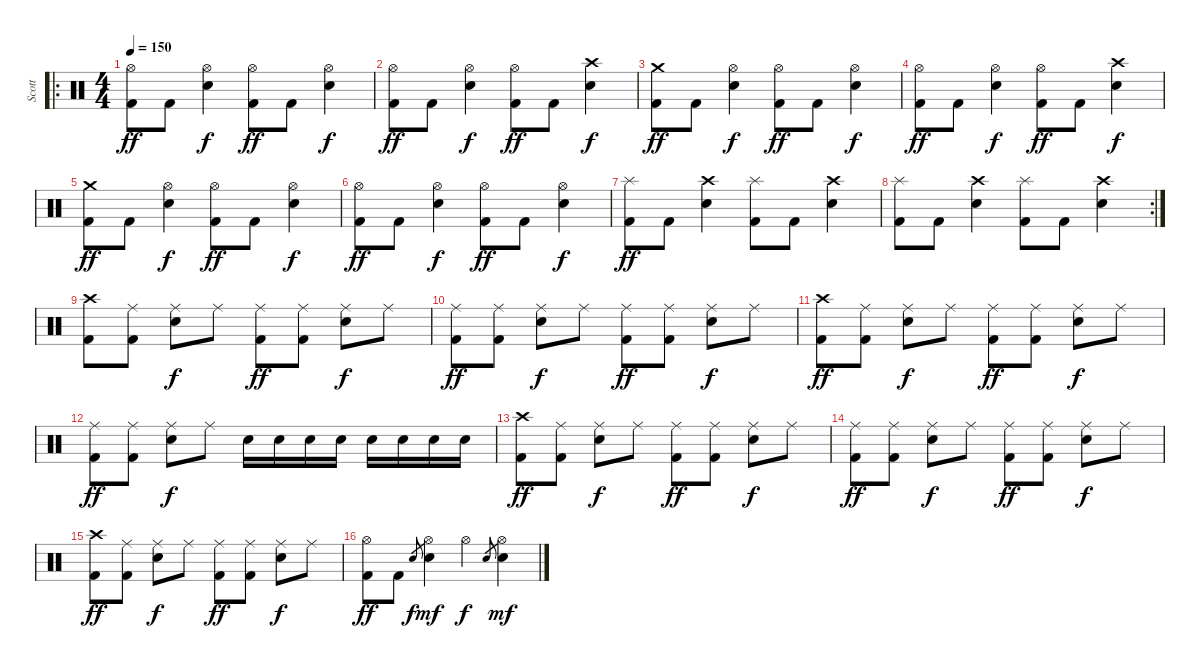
\track ("Scott" "Scott") {solo instrument percussion}
\staff {score}
\articulation defaults
\ro
\ts (4 4)
\tempo 150
\clef neutral
\ks c
("Hi-Hat (open)" "Kick (hit) 2").8{dy ff} "Kick (hit) 2".8 ("Hi-Hat (open)" "Electric Snare (hit)").4{dy f} ("Hi-Hat (open)" "Kick (hit) 2").8{dy ff} "Kick (hit) 2".8 ("Hi-Hat (open)" "Electric Snare (hit)").4{dy f} |
("Hi-Hat (open)" "Kick (hit) 2").8{dy ff} "Kick (hit) 2".8 ("Hi-Hat (open)" "Electric Snare (hit)").4{dy f} ("Kick (hit) 2" "Hi-Hat (open)").8{dy ff} "Kick (hit) 2".8 ("Crash high (hit)" "Electric Snare (hit)").4{dy f} |
("Crash medium (hit)" "Kick (hit) 2").8{dy ff} "Kick (hit) 2".8 ("Hi-Hat (open)" "Electric Snare (hit)").4{dy f} ("Hi-Hat (open)" "Kick (hit) 2").8{dy ff} "Kick (hit) 2".8 ("Hi-Hat (open)" "Electric Snare (hit)").4{dy f} |
("Hi-Hat (open)" "Kick (hit) 2").8{dy ff} "Kick (hit) 2".8 ("Hi-Hat (open)" "Electric Snare (hit)").4{dy f} ("Kick (hit) 2" "Hi-Hat (open)").8{dy ff} "Kick (hit) 2".8 ("Crash high (hit)" "Electric Snare (hit)").4{dy f} |
("Crash medium (hit)" "Kick (hit) 2").8{dy ff} "Kick (hit) 2".8 ("Hi-Hat (open)" "Electric Snare (hit)").4{dy f} ("Hi-Hat (open)" "Kick (hit) 2").8{dy ff} "Kick (hit) 2".8 ("Hi-Hat (open)" "Electric Snare (hit)").4{dy f} |
("Hi-Hat (open)" "Kick (hit) 2").8{dy ff} "Kick (hit) 2".8 ("Hi-Hat (open)" "Electric Snare (hit)").4{dy f} ("Hi-Hat (open)" "Kick (hit) 2").8{dy ff} "Kick (hit) 2".8 ("Hi-Hat (open)" "Electric Snare (hit)").4{dy f} |
("Kick (hit) 2" "Splash (hit)").8{dy ff} "Kick (hit) 2".8 ("Crash high (hit)" "Electric Snare (hit)").4 ("Kick (hit) 2" "Splash (hit)").8 "Kick (hit) 2".8 ("Crash high (hit)" "Electric Snare (hit)").4 |
\rc 2
("Kick (hit) 2" "Splash (hit)").8 "Kick (hit) 2".8 ("Crash high (hit)" "Electric Snare (hit)").4 ("Kick (hit) 2" "Splash (hit)").8 "Kick (hit) 2".8 ("Crash high (hit)" "Electric Snare (hit)").4 |
("Crash high (hit)" "Kick (hit) 2").8 ("Kick (hit) 2" "Ride (middle)").8 ("Ride (middle)" "Electric Snare (hit)").8{dy f} "Ride (middle)".8 ("Ride (middle)" "Kick (hit) 2").8{dy ff} ("Kick (hit) 2" "Ride (middle)").8 ("Ride (middle)" "Electric Snare (hit)").8{dy f} "Ride (middle)".8 |
("Ride (middle)" "Kick (hit) 2").8{dy ff} ("Kick (hit) 2" "Ride (middle)").8 ("Ride (middle)" "Electric Snare (hit)").8{dy f} "Ride (middle)".8 ("Ride (middle)" "Kick (hit) 2").8{dy ff} ("Kick (hit) 2" "Ride (middle)").8 ("Ride (middle)" "Electric Snare (hit)").8{dy f} "Ride (middle)".8 |
("Crash high (hit)" "Kick (hit) 2").8{dy ff} ("Kick (hit) 2" "Ride (middle)").8 ("Ride (middle)" "Electric Snare (hit)").8{dy f} "Ride (middle)".8 ("Ride (middle)" "Kick (hit) 2").8{dy ff} ("Kick (hit) 2" "Ride (middle)").8 ("Ride (middle)" "Electric Snare (hit)").8{dy f} "Ride (middle)".8 |
("Ride (middle)" "Kick (hit) 2").8{dy ff} ("Kick (hit) 2" "Ride (middle)").8 ("Ride (middle)" "Electric Snare (hit)").8{dy f} "Ride (middle)".8 "Electric Snare (hit)".16 "Electric Snare (hit)".16 "Electric Snare (hit)".16 "Electric Snare (hit)".16 "Electric Snare (hit)".16 "Electric Snare (hit)".16 "Electric Snare (hit)".16 "Electric Snare (hit)".16 |
("Crash high (hit)" "Kick (hit) 2").8{dy ff} ("Kick (hit) 2" "Ride (middle)").8 ("Ride (middle)" "Electric Snare (hit)").8{dy f} "Ride (middle)".8 ("Ride (middle)" "Kick (hit) 2").8{dy ff} ("Kick (hit) 2" "Ride (middle)").8 ("Ride (middle)" "Electric Snare (hit)").8{dy f} "Ride (middle)".8 |
("Ride (middle)" "Kick (hit) 2").8{dy ff} ("Kick (hit) 2" "Ride (middle)").8 ("Ride (middle)" "Electric Snare (hit)").8{dy f} "Ride (middle)".8 ("Ride (middle)" "Kick (hit) 2").8{dy ff} ("Kick (hit) 2" "Ride (middle)").8 ("Ride (middle)" "Electric Snare (hit)").8{dy f} "Ride (middle)".8 |
("Crash high (hit)" "Kick (hit) 2").8{dy ff} ("Kick (hit) 2" "Ride (middle)").8 ("Ride (middle)" "Electric Snare (hit)").8{dy f} "Ride (middle)".8 ("Ride (middle)" "Kick (hit) 2").8{dy ff} ("Kick (hit) 2" "Ride (middle)").8 ("Ride (middle)" "Electric Snare (hit)").8{dy f} "Ride (middle)".8 |
("Kick (hit) 2" "Hi-Hat (open)").8{dy ff} "Kick (hit) 2".8 "Electric Snare (hit)".8{gr dy f} ("Hi-Hat (open)" "Electric Snare (hit)").4{dy mf} "Hi-Hat (open)".4{dy f} "Electric Snare (hit)".8{gr} ("Hi-Hat (open)" "Electric Snare (hit)").4{dy mf}
